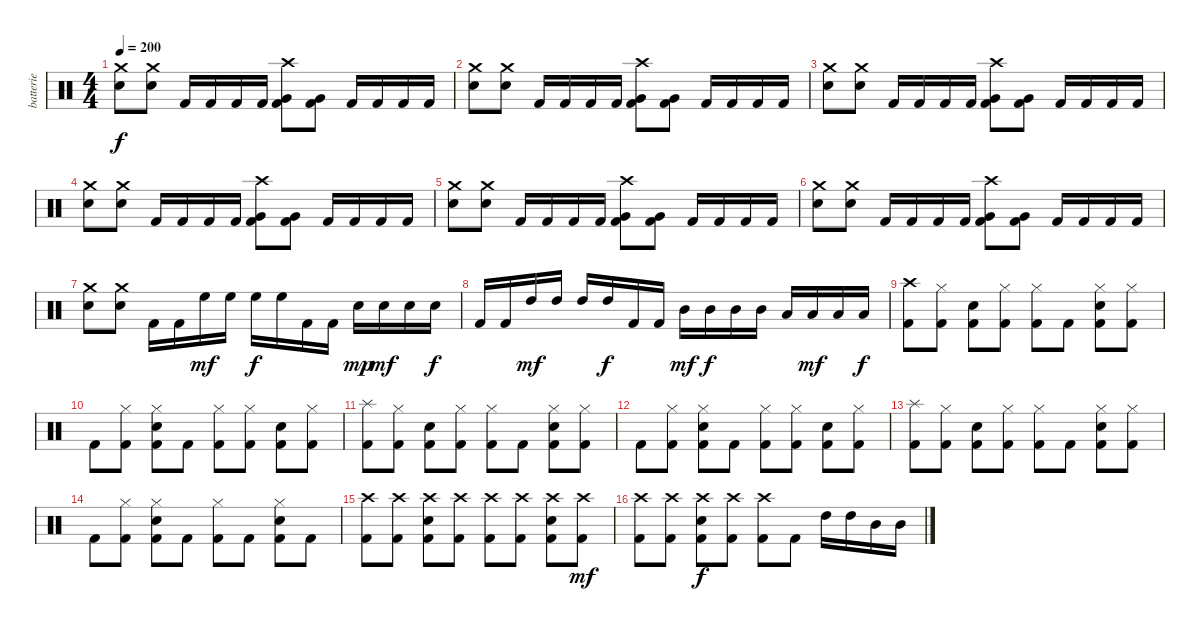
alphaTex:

\track ("batterie" "batterie") {instrument percussion}
\staff {score}
\articulation defaults
\ts (4 4)
\tempo 200
\clef neutral
\ks c
("Electric Snare (hit)" "Crash medium (hit)").8{dy f} ("Electric Snare (hit)" "Crash medium (hit)").8 "Kick (hit) 2".16 "Kick (hit) 2".16 "Kick (hit) 2".16 "Kick (hit) 2".16 ("Kick (hit) 2" "Very Low Tom (hit)" "Crash high (hit)").8 ("Kick (hit) 2" "Very Low Tom (hit)").8 "Kick (hit) 2".16 "Kick (hit) 2".16 "Kick (hit) 2".16 "Kick (hit) 2".16 |
("Electric Snare (hit)" "Crash medium (hit)").8 ("Electric Snare (hit)" "Crash medium (hit)").8 "Kick (hit) 2".16 "Kick (hit) 2".16 "Kick (hit) 2".16 "Kick (hit) 2".16 ("Kick (hit) 2" "Very Low Tom (hit)" "Crash high (hit)").8 ("Kick (hit) 2" "Very Low Tom (hit)").8 "Kick (hit) 2".16 "Kick (hit) 2".16 "Kick (hit) 2".16 "Kick (hit) 2".16 |
("Electric Snare (hit)" "Crash medium (hit)").8 ("Electric Snare (hit)" "Crash medium (hit)").8 "Kick (hit) 2".16 "Kick (hit) 2".16 "Kick (hit) 2".16 "Kick (hit) 2".16 ("Kick (hit) 2" "Very Low Tom (hit)" "Crash high (hit)").8 ("Kick (hit) 2" "Very Low Tom (hit)").8 "Kick (hit) 2".16 "Kick (hit) 2".16 "Kick (hit) 2".16 "Kick (hit) 2".16 |
("Electric Snare (hit)" "Crash medium (hit)").8 ("Electric Snare (hit)" "Crash medium (hit)").8 "Kick (hit) 2".16 "Kick (hit) 2".16 "Kick (hit) 2".16 "Kick (hit) 2".16 ("Kick (hit) 2" "Very Low Tom (hit)" "Crash high (hit)").8 ("Kick (hit) 2" "Very Low Tom (hit)").8 "Kick (hit) 2".16 "Kick (hit) 2".16 "Kick (hit) 2".16 "Kick (hit) 2".16 |
("Electric Snare (hit)" "Crash medium (hit)").8 ("Electric Snare (hit)" "Crash medium (hit)").8 "Kick (hit) 2".16 "Kick (hit) 2".16 "Kick (hit) 2".16 "Kick (hit) 2".16 ("Kick (hit) 2" "Very Low Tom (hit)" "Crash high (hit)").8 ("Kick (hit) 2" "Very Low Tom (hit)").8 "Kick (hit) 2".16 "Kick (hit) 2".16 "Kick (hit) 2".16 "Kick (hit) 2".16 |
("Electric Snare (hit)" "Crash medium (hit)").8 ("Electric Snare (hit)" "Crash medium (hit)").8 "Kick (hit) 2".16 "Kick (hit) 2".16 "Kick (hit) 2".16 "Kick (hit) 2".16 ("Kick (hit) 2" "Very Low Tom (hit)" "Crash high (hit)").8 ("Kick (hit) 2" "Very Low Tom (hit)").8 "Kick (hit) 2".16 "Kick (hit) 2".16 "Kick (hit) 2".16 "Kick (hit) 2".16 |
("Electric Snare (hit)" "Crash medium (hit)").8 ("Electric Snare (hit)" "Crash medium (hit)").8 "Kick (hit) 2".16 "Kick (hit) 2".16 "High Floor Tom (hit)".16{dy mf} "High Floor Tom (hit)".16 "High Floor Tom (hit)".16{dy f} "High Floor Tom (hit)".16 "Kick (hit) 2".16 "Kick (hit) 2".16 "Electric Snare (hit)".16{dy mp} "Electric Snare (hit)".16{dy mf} "Electric Snare (hit)".16 "Electric Snare (hit)".16{dy f} |
"Kick (hit) 2".16 "Kick (hit) 2".16 "High Tom (hit)".16{dy mf} "High Tom (hit)".16 "High Tom (hit)".16 "High Tom (hit)".16{dy f} "Kick (hit) 2".16 "Kick (hit) 2".16 "Mid Tom (hit)".16{dy mf} "Mid Tom (hit)".16{dy f} "Mid Tom (hit)".16 "Mid Tom (hit)".16 "Low Tom (hit)".16 "Low Tom (hit)".16{dy mf} "Low Tom (hit)".16 "Low Tom (hit)".16{dy f} |
("Kick (hit) 2" "Crash high (hit)").8 ("Kick (hit) 2" "Hi-Hat (closed)").8 ("Kick (hit) 2" "Electric Snare (hit)").8 ("Kick (hit) 2" "Hi-Hat (closed)").8 ("Kick (hit) 2" "Hi-Hat (closed)").8 "Kick (hit) 2".8 ("Kick (hit) 2" "Electric Snare (hit)" "Hi-Hat (closed)").8 ("Kick (hit) 2" "Hi-Hat (closed)").8 |
"Kick (hit) 2".8 ("Kick (hit) 2" "Hi-Hat (closed)").8 ("Kick (hit) 2" "Electric Snare (hit)" "Hi-Hat (closed)").8 "Kick (hit) 2".8 ("Kick (hit) 2" "Hi-Hat (closed)").8 ("Kick (hit) 2" "Hi-Hat (closed)").8 ("Kick (hit) 2" "Electric Snare (hit)").8 ("Kick (hit) 2" "Hi-Hat (closed)").8 |
("Kick (hit) 2" "Splash (hit)").8 ("Kick (hit) 2" "Hi-Hat (closed)").8 ("Kick (hit) 2" "Electric Snare (hit)").8 ("Kick (hit) 2" "Hi-Hat (closed)").8 ("Kick (hit) 2" "Hi-Hat (closed)").8 "Kick (hit) 2".8 ("Kick (hit) 2" "Electric Snare (hit)" "Hi-Hat (closed)").8 ("Kick (hit) 2" "Hi-Hat (closed)").8 |
"Kick (hit) 2".8 ("Kick (hit) 2" "Hi-Hat (closed)").8 ("Kick (hit) 2" "Electric Snare (hit)" "Hi-Hat (closed)").8 "Kick (hit) 2".8 ("Kick (hit) 2" "Hi-Hat (closed)").8 ("Kick (hit) 2" "Hi-Hat (closed)").8 ("Kick (hit) 2" "Electric Snare (hit)").8 ("Kick (hit) 2" "Hi-Hat (closed)").8 |
("Kick (hit) 2" "Splash (hit)").8 ("Kick (hit) 2" "Hi-Hat (closed)").8 ("Kick (hit) 2" "Electric Snare (hit)").8 ("Kick (hit) 2" "Hi-Hat (closed)").8 ("Kick (hit) 2" "Hi-Hat (closed)").8 "Kick (hit) 2".8 ("Kick (hit) 2" "Electric Snare (hit)" "Hi-Hat (closed)").8 ("Kick (hit) 2" "Hi-Hat (closed)").8 |
"Kick (hit) 2".8 ("Kick (hit) 2" "Hi-Hat (closed)").8 ("Kick (hit) 2" "Electric Snare (hit)" "Hi-Hat (closed)").8 "Kick (hit) 2".8 ("Kick (hit) 2" "Hi-Hat (closed)").8 "Kick (hit) 2".8 ("Kick (hit) 2" "Electric Snare (hit)" "Hi-Hat (closed)").8 "Kick (hit) 2".8 |
("Kick (hit) 2" "Crash high (hit)").8 ("Kick (hit) 2" "Crash high (hit)").8 ("Kick (hit) 2" "Electric Snare (hit)" "Crash high (hit)").8 ("Kick (hit) 2" "Crash high (hit)").8 ("Kick (hit) 2" "Crash high (hit)").8 ("Kick (hit) 2" "Crash high (hit)").8 ("Kick (hit) 2" "Electric Snare (hit)" "Crash high (hit)").8 ("Kick (hit) 2" "Crash high (hit)").8{dy mf} |
("Kick (hit) 2" "Crash high (hit)").8 ("Kick (hit) 2" "Crash high (hit)").8 ("Kick (hit) 2" "Electric Snare (hit)" "Crash high (hit)").8{dy f} ("Kick (hit) 2" "Crash high (hit)").8 ("Kick (hit) 2" "Crash high (hit)").8 "Kick (hit) 2".8 "High Tom (hit)".16 "High Tom (hit)".16 "Mid Tom (hit)".16 "Mid Tom (hit)".16
